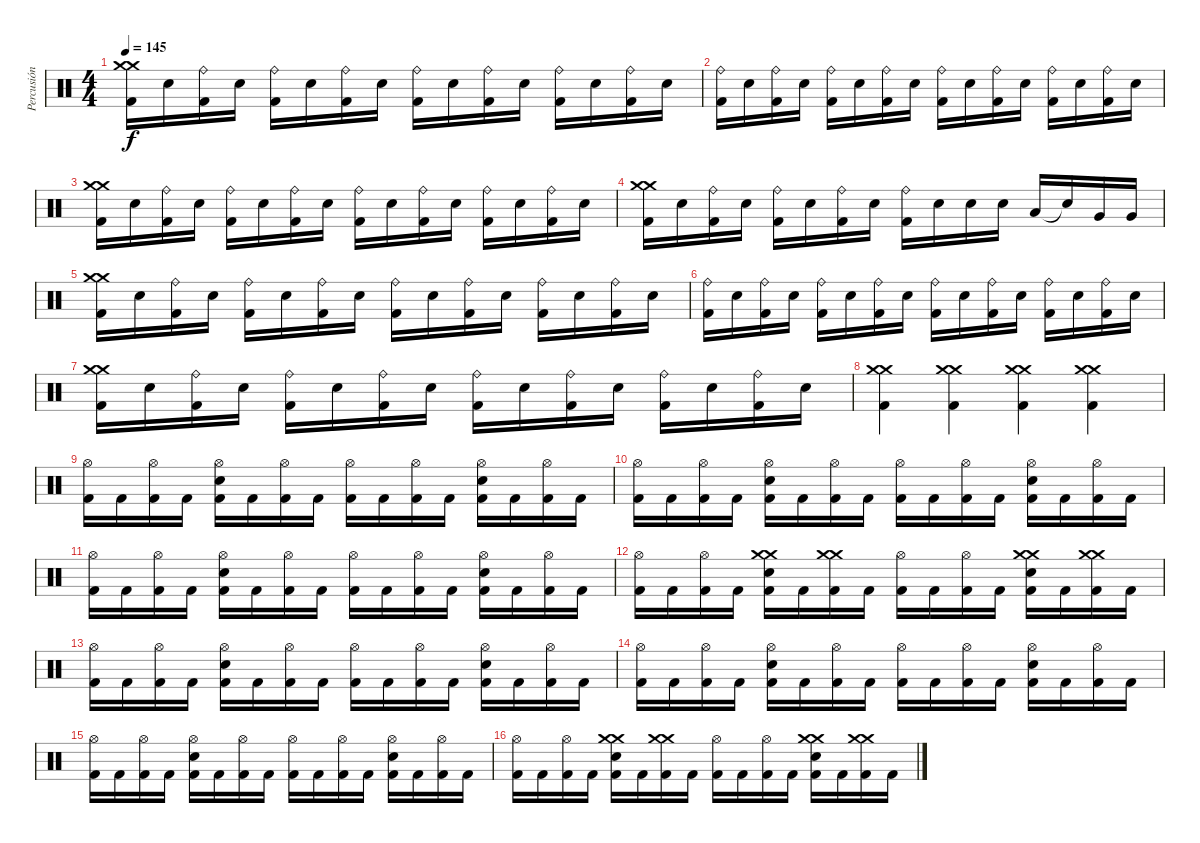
\track ("Percusión" "Percusión") {instrument percussion}
\staff {score}
\articulation defaults
\ts (4 4)
\tempo 145
\clef neutral
\ks c
("Crash medium (hit)" "Crash medium (hit)" "Kick (hit) 2").16{dy f} "Snare (hit) 2".16 ("Ride (bell)" "Kick (hit) 2").16 "Snare (hit) 2".16 ("Ride (bell)" "Kick (hit) 2").16 "Snare (hit) 2".16 ("Ride (bell)" "Kick (hit) 2").16 "Snare (hit) 2".16 ("Ride (bell)" "Kick (hit) 2").16 "Snare (hit) 2".16 ("Ride (bell)" "Kick (hit) 2").16 "Snare (hit) 2".16 ("Ride (bell)" "Kick (hit) 2").16 "Snare (hit) 2".16 ("Ride (bell)" "Kick (hit) 2").16 "Snare (hit) 2".16 |
("Ride (bell)" "Kick (hit) 2").16 "Snare (hit) 2".16 ("Ride (bell)" "Kick (hit) 2").16 "Snare (hit) 2".16 ("Ride (bell)" "Kick (hit) 2").16 "Snare (hit) 2".16 ("Ride (bell)" "Kick (hit) 2").16 "Snare (hit) 2".16 ("Ride (bell)" "Kick (hit) 2").16 "Snare (hit) 2".16 ("Ride (bell)" "Kick (hit) 2").16 "Snare (hit) 2".16 ("Ride (bell)" "Kick (hit) 2").16 "Snare (hit) 2".16 ("Ride (bell)" "Kick (hit) 2").16 "Snare (hit) 2".16 |
("Crash medium (hit)" "Crash medium (hit)" "Kick (hit) 2").16 "Snare (hit) 2".16 ("Ride (bell)" "Kick (hit) 2").16 "Snare (hit) 2".16 ("Ride (bell)" "Kick (hit) 2").16 "Snare (hit) 2".16 ("Ride (bell)" "Kick (hit) 2").16 "Snare (hit) 2".16 ("Ride (bell)" "Kick (hit) 2").16 "Snare (hit) 2".16 ("Ride (bell)" "Kick (hit) 2").16 "Snare (hit) 2".16 ("Ride (bell)" "Kick (hit) 2").16 "Snare (hit) 2".16 ("Ride (bell)" "Kick (hit) 2").16 "Snare (hit) 2".16 |
("Crash medium (hit)" "Crash medium (hit)" "Kick (hit) 2").16 "Snare (hit) 2".16 ("Ride (bell)" "Kick (hit) 2").16 "Snare (hit) 2".16 ("Ride (bell)" "Kick (hit) 2").16 "Snare (hit) 2".16 ("Ride (bell)" "Kick (hit) 2").16 "Snare (hit) 2".16 ("Ride (bell)" "Kick (hit) 2").16 "Snare (hit) 2".16 "Snare (hit) 2".16 "Snare (hit) 2".16 "Low Tom (hit)".16 "Snare (hit) 2"{t}.16 "Very Low Tom (hit)".16 "Very Low Tom (hit)".16 |
("Crash medium (hit)" "Crash medium (hit)" "Kick (hit) 2").16 "Snare (hit) 2".16 ("Ride (bell)" "Kick (hit) 2").16 "Snare (hit) 2".16 ("Ride (bell)" "Kick (hit) 2").16 "Snare (hit) 2".16 ("Ride (bell)" "Kick (hit) 2").16 "Snare (hit) 2".16 ("Ride (bell)" "Kick (hit) 2").16 "Snare (hit) 2".16 ("Ride (bell)" "Kick (hit) 2").16 "Snare (hit) 2".16 ("Ride (bell)" "Kick (hit) 2").16 "Snare (hit) 2".16 ("Ride (bell)" "Kick (hit) 2").16 "Snare (hit) 2".16 |
("Ride (bell)" "Kick (hit) 2").16 "Snare (hit) 2".16 ("Ride (bell)" "Kick (hit) 2").16 "Snare (hit) 2".16 ("Ride (bell)" "Kick (hit) 2").16 "Snare (hit) 2".16 ("Ride (bell)" "Kick (hit) 2").16 "Snare (hit) 2".16 ("Ride (bell)" "Kick (hit) 2").16 "Snare (hit) 2".16 ("Ride (bell)" "Kick (hit) 2").16 "Snare (hit) 2".16 ("Ride (bell)" "Kick (hit) 2").16 "Snare (hit) 2".16 ("Ride (bell)" "Kick (hit) 2").16 "Snare (hit) 2".16 |
("Crash medium (hit)" "Crash medium (hit)" "Kick (hit) 2").16 "Snare (hit) 2".16 ("Ride (bell)" "Kick (hit) 2").16 "Snare (hit) 2".16 ("Ride (bell)" "Kick (hit) 2").16 "Snare (hit) 2".16 ("Ride (bell)" "Kick (hit) 2").16 "Snare (hit) 2".16 ("Ride (bell)" "Kick (hit) 2").16 "Snare (hit) 2".16 ("Ride (bell)" "Kick (hit) 2").16 "Snare (hit) 2".16 ("Ride (bell)" "Kick (hit) 2").16 "Snare (hit) 2".16 ("Ride (bell)" "Kick (hit) 2").16 "Snare (hit) 2".16 |
("Crash medium (hit)" "Crash medium (hit)" "Kick (hit) 2").4 ("Crash medium (hit)" "Crash medium (hit)" "Kick (hit) 2").4 ("Crash medium (hit)" "Crash medium (hit)" "Kick (hit) 2").4 ("Crash medium (hit)" "Crash medium (hit)" "Kick (hit) 2").4 |
("Hi-Hat (open)" "Kick (hit) 2").16 "Kick (hit) 2".16 ("Hi-Hat (open)" "Kick (hit) 2").16 "Kick (hit) 2".16 ("Hi-Hat (open)" "Snare (hit) 2" "Kick (hit) 2").16 "Kick (hit) 2".16 ("Hi-Hat (open)" "Kick (hit) 2").16 "Kick (hit) 2".16 ("Hi-Hat (open)" "Kick (hit) 2").16 "Kick (hit) 2".16 ("Hi-Hat (open)" "Kick (hit) 2").16 "Kick (hit) 2".16 ("Hi-Hat (open)" "Snare (hit) 2" "Kick (hit) 2").16 "Kick (hit) 2".16 ("Hi-Hat (open)" "Kick (hit) 2").16 "Kick (hit) 2".16 |
("Hi-Hat (open)" "Kick (hit) 2").16 "Kick (hit) 2".16 ("Hi-Hat (open)" "Kick (hit) 2").16 "Kick (hit) 2".16 ("Hi-Hat (open)" "Snare (hit) 2" "Kick (hit) 2").16 "Kick (hit) 2".16 ("Hi-Hat (open)" "Kick (hit) 2").16 "Kick (hit) 2".16 ("Hi-Hat (open)" "Kick (hit) 2").16 "Kick (hit) 2".16 ("Hi-Hat (open)" "Kick (hit) 2").16 "Kick (hit) 2".16 ("Hi-Hat (open)" "Snare (hit) 2" "Kick (hit) 2").16 "Kick (hit) 2".16 ("Hi-Hat (open)" "Kick (hit) 2").16 "Kick (hit) 2".16 |
("Hi-Hat (open)" "Kick (hit) 2").16 "Kick (hit) 2".16 ("Hi-Hat (open)" "Kick (hit) 2").16 "Kick (hit) 2".16 ("Hi-Hat (open)" "Snare (hit) 2" "Kick (hit) 2").16 "Kick (hit) 2".16 ("Hi-Hat (open)" "Kick (hit) 2").16 "Kick (hit) 2".16 ("Hi-Hat (open)" "Kick (hit) 2").16 "Kick (hit) 2".16 ("Hi-Hat (open)" "Kick (hit) 2").16 "Kick (hit) 2".16 ("Hi-Hat (open)" "Snare (hit) 2" "Kick (hit) 2").16 "Kick (hit) 2".16 ("Hi-Hat (open)" "Kick (hit) 2").16 "Kick (hit) 2".16 |
("Hi-Hat (open)" "Kick (hit) 2").16 "Kick (hit) 2".16 ("Hi-Hat (open)" "Kick (hit) 2").16 "Kick (hit) 2".16 ("Crash medium (hit)" "Crash medium (hit)" "Snare (hit) 2" "Kick (hit) 2").16 "Kick (hit) 2".16 ("Crash medium (hit)" "Crash medium (hit)" "Kick (hit) 2").16 "Kick (hit) 2".16 ("Hi-Hat (open)" "Kick (hit) 2").16 "Kick (hit) 2".16 ("Hi-Hat (open)" "Kick (hit) 2").16 "Kick (hit) 2".16 ("Crash medium (hit)" "Crash medium (hit)" "Snare (hit) 2" "Kick (hit) 2").16 "Kick (hit) 2".16 ("Crash medium (hit)" "Crash medium (hit)" "Kick (hit) 2").16 "Kick (hit) 2".16 |
("Hi-Hat (open)" "Kick (hit) 2").16 "Kick (hit) 2".16 ("Hi-Hat (open)" "Kick (hit) 2").16 "Kick (hit) 2".16 ("Hi-Hat (open)" "Snare (hit) 2" "Kick (hit) 2").16 "Kick (hit) 2".16 ("Hi-Hat (open)" "Kick (hit) 2").16 "Kick (hit) 2".16 ("Hi-Hat (open)" "Kick (hit) 2").16 "Kick (hit) 2".16 ("Hi-Hat (open)" "Kick (hit) 2").16 "Kick (hit) 2".16 ("Hi-Hat (open)" "Snare (hit) 2" "Kick (hit) 2").16 "Kick (hit) 2".16 ("Hi-Hat (open)" "Kick (hit) 2").16 "Kick (hit) 2".16 |
("Hi-Hat (open)" "Kick (hit) 2").16 "Kick (hit) 2".16 ("Hi-Hat (open)" "Kick (hit) 2").16 "Kick (hit) 2".16 ("Hi-Hat (open)" "Snare (hit) 2" "Kick (hit) 2").16 "Kick (hit) 2".16 ("Hi-Hat (open)" "Kick (hit) 2").16 "Kick (hit) 2".16 ("Hi-Hat (open)" "Kick (hit) 2").16 "Kick (hit) 2".16 ("Hi-Hat (open)" "Kick (hit) 2").16 "Kick (hit) 2".16 ("Hi-Hat (open)" "Snare (hit) 2" "Kick (hit) 2").16 "Kick (hit) 2".16 ("Hi-Hat (open)" "Kick (hit) 2").16 "Kick (hit) 2".16 |
("Hi-Hat (open)" "Kick (hit) 2").16 "Kick (hit) 2".16 ("Hi-Hat (open)" "Kick (hit) 2").16 "Kick (hit) 2".16 ("Hi-Hat (open)" "Snare (hit) 2" "Kick (hit) 2").16 "Kick (hit) 2".16 ("Hi-Hat (open)" "Kick (hit) 2").16 "Kick (hit) 2".16 ("Hi-Hat (open)" "Kick (hit) 2").16 "Kick (hit) 2".16 ("Hi-Hat (open)" "Kick (hit) 2").16 "Kick (hit) 2".16 ("Hi-Hat (open)" "Snare (hit) 2" "Kick (hit) 2").16 "Kick (hit) 2".16 ("Hi-Hat (open)" "Kick (hit) 2").16 "Kick (hit) 2".16 |
("Hi-Hat (open)" "Kick (hit) 2").16 "Kick (hit) 2".16 ("Hi-Hat (open)" "Kick (hit) 2").16 "Kick (hit) 2".16 ("Crash medium (hit)" "Crash medium (hit)" "Snare (hit) 2" "Kick (hit) 2").16 "Kick (hit) 2".16 ("Crash medium (hit)" "Crash medium (hit)" "Kick (hit) 2").16 "Kick (hit) 2".16 ("Hi-Hat (open)" "Kick (hit) 2").16 "Kick (hit) 2".16 ("Hi-Hat (open)" "Kick (hit) 2").16 "Kick (hit) 2".16 ("Crash medium (hit)" "Crash medium (hit)" "Snare (hit) 2" "Kick (hit) 2").16 "Kick (hit) 2".16 ("Crash medium (hit)" "Crash medium (hit)" "Kick (hit) 2").16 "Kick (hit) 2".16
